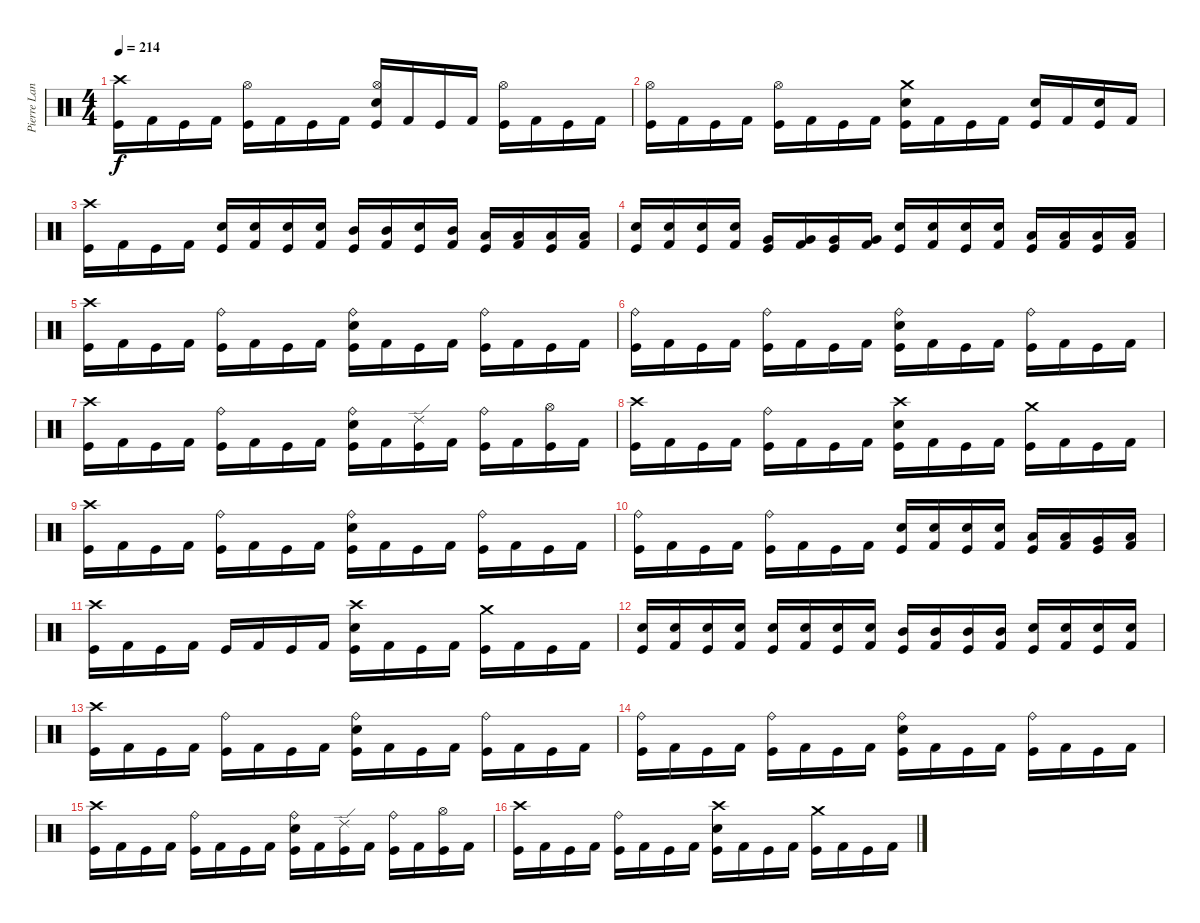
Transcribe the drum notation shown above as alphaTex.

\track ("Pierre Langlois (Drums)" "Pierre Lan") {instrument percussion}
\staff {score}
\articulation defaults
\ts (4 4)
\tempo 214
\clef neutral
\ks c
("Crash high (hit)" "Kick (hit)").16{dy f} "Kick (hit) 2".16 "Kick (hit)".16 "Kick (hit) 2".16 ("Hi-Hat (open)" "Kick (hit)").16 "Kick (hit) 2".16 "Kick (hit)".16 "Kick (hit) 2".16 ("Hi-Hat (open)" "Snare (hit) 2" "Kick (hit)").16 "Kick (hit) 2".16 "Kick (hit)".16 "Kick (hit) 2".16 ("Hi-Hat (open)" "Kick (hit)").16 "Kick (hit) 2".16 "Kick (hit)".16 "Kick (hit) 2".16 |
("Hi-Hat (open)" "Kick (hit)").16 "Kick (hit) 2".16 "Kick (hit)".16 "Kick (hit) 2".16 ("Hi-Hat (open)" "Kick (hit)").16 "Kick (hit) 2".16 "Kick (hit)".16 "Kick (hit) 2".16 ("Crash medium (hit)" "Snare (hit) 2" "Kick (hit)").16 "Kick (hit) 2".16 "Kick (hit)".16 "Kick (hit) 2".16 ("Snare (hit) 2" "Kick (hit)").16 "Kick (hit) 2".16 ("Snare (hit) 2" "Kick (hit)").16 "Kick (hit) 2".16 |
("Crash high (hit)" "Kick (hit)").16 "Kick (hit) 2".16 "Kick (hit)".16 "Kick (hit) 2".16 ("Snare (hit) 2" "Kick (hit)").16 ("Snare (hit) 2" "Kick (hit) 2").16 ("Snare (hit) 2" "Kick (hit)").16 ("Snare (hit) 2" "Kick (hit) 2").16 ("Mid Tom (hit)" "Kick (hit)").16 ("Mid Tom (hit)" "Kick (hit) 2").16 ("Snare (hit) 2" "Kick (hit)").16 ("Mid Tom (hit)" "Kick (hit) 2").16 ("Low Tom (hit)" "Kick (hit)").16 ("Low Tom (hit)" "Kick (hit) 2").16 ("Low Tom (hit)" "Kick (hit)").16 ("Low Tom (hit)" "Kick (hit) 2").16 |
("Snare (hit) 2" "Kick (hit)").16 ("Snare (hit) 2" "Kick (hit) 2").16 ("Snare (hit) 2" "Kick (hit)").16 ("Snare (hit) 2" "Kick (hit) 2").16 ("Very Low Tom (hit)" "Kick (hit)").16 ("Very Low Tom (hit)" "Kick (hit) 2").16 ("Very Low Tom (hit)" "Kick (hit)").16 ("Very Low Tom (hit)" "Kick (hit) 2").16 ("Snare (hit) 2" "Kick (hit)").16 ("Snare (hit) 2" "Kick (hit) 2").16 ("Snare (hit) 2" "Kick (hit)").16 ("Snare (hit) 2" "Kick (hit) 2").16 ("Low Floor Tom (hit)" "Kick (hit)").16 ("Low Floor Tom (hit)" "Kick (hit) 2").16 ("Low Floor Tom (hit)" "Kick (hit)").16 ("Low Floor Tom (hit)" "Kick (hit) 2").16 |
("Crash high (hit)" "Kick (hit)").16 "Kick (hit) 2".16 "Kick (hit)".16 "Kick (hit) 2".16 ("Ride (bell)" "Kick (hit)").16 "Kick (hit) 2".16 "Kick (hit)".16 "Kick (hit) 2".16 ("Ride (bell)" "Snare (hit) 2" "Kick (hit)").16 "Kick (hit) 2".16 "Kick (hit)".16 "Kick (hit) 2".16 ("Ride (bell)" "Kick (hit)").16 "Kick (hit) 2".16 "Kick (hit)".16 "Kick (hit) 2".16 |
("Ride (bell)" "Kick (hit)").16 "Kick (hit) 2".16 "Kick (hit)".16 "Kick (hit) 2".16 ("Ride (bell)" "Kick (hit)").16 "Kick (hit) 2".16 "Kick (hit)".16 "Kick (hit) 2".16 ("Ride (bell)" "Snare (hit) 2" "Kick (hit)").16 "Kick (hit) 2".16 "Kick (hit)".16 "Kick (hit) 2".16 ("Ride (bell)" "Kick (hit)").16 "Kick (hit) 2".16 "Kick (hit)".16 "Kick (hit) 2".16 |
("Crash high (hit)" "Kick (hit)").16 "Kick (hit) 2".16 "Kick (hit)".16 "Kick (hit) 2".16 ("Ride (bell)" "Kick (hit)").16 "Kick (hit) 2".16 "Kick (hit)".16 "Kick (hit) 2".16 ("Ride (bell)" "Snare (hit) 2" "Kick (hit)").16 "Kick (hit) 2".16 ("Ride (edge) 2" "Kick (hit)").16 "Kick (hit) 2".16 ("Ride (bell)" "Kick (hit)").16 "Kick (hit) 2".16 ("Hi-Hat (open)" "Kick (hit)").16 "Kick (hit) 2".16 |
("Crash high (hit)" "Kick (hit)").16 "Kick (hit) 2".16 "Kick (hit)".16 "Kick (hit) 2".16 ("Ride (bell)" "Kick (hit)").16 "Kick (hit) 2".16 "Kick (hit)".16 "Kick (hit) 2".16 ("Crash high (hit)" "Snare (hit) 2" "Kick (hit)").16 "Kick (hit) 2".16 "Kick (hit)".16 "Kick (hit) 2".16 ("Crash medium (hit)" "Kick (hit)").16 "Kick (hit) 2".16 "Kick (hit)".16 "Kick (hit) 2".16 |
("Crash high (hit)" "Kick (hit)").16 "Kick (hit) 2".16 "Kick (hit)".16 "Kick (hit) 2".16 ("Ride (bell)" "Kick (hit)").16 "Kick (hit) 2".16 "Kick (hit)".16 "Kick (hit) 2".16 ("Ride (bell)" "Snare (hit) 2" "Kick (hit)").16 "Kick (hit) 2".16 "Kick (hit)".16 "Kick (hit) 2".16 ("Ride (bell)" "Kick (hit)").16 "Kick (hit) 2".16 "Kick (hit)".16 "Kick (hit) 2".16 |
("Ride (bell)" "Kick (hit)").16 "Kick (hit) 2".16 "Kick (hit)".16 "Kick (hit) 2".16 ("Ride (bell)" "Kick (hit)").16 "Kick (hit) 2".16 "Kick (hit)".16 "Kick (hit) 2".16 ("Snare (hit) 2" "Kick (hit)").16 ("Snare (hit) 2" "Kick (hit) 2").16 ("Snare (hit) 2" "Kick (hit)").16 ("Snare (hit) 2" "Kick (hit) 2").16 ("Low Tom (hit)" "Kick (hit)").16 ("Low Tom (hit)" "Kick (hit) 2").16 ("Very Low Tom (hit)" "Kick (hit)").16 ("Low Floor Tom (hit)" "Kick (hit) 2").16 |
("Crash high (hit)" "Kick (hit)").16 "Kick (hit) 2".16 "Kick (hit)".16 "Kick (hit) 2".16 "Kick (hit)".16 "Kick (hit) 2".16 "Kick (hit)".16 "Kick (hit) 2".16 ("Crash high (hit)" "Snare (hit) 2" "Kick (hit)").16 "Kick (hit) 2".16 "Kick (hit)".16 "Kick (hit) 2".16 ("Crash medium (hit)" "Kick (hit)").16 "Kick (hit) 2".16 "Kick (hit)".16 "Kick (hit) 2".16 |
("Snare (hit) 2" "Kick (hit)").16 ("Snare (hit) 2" "Kick (hit) 2").16 ("Snare (hit) 2" "Kick (hit)").16 ("Snare (hit) 2" "Kick (hit) 2").16 ("Snare (hit) 2" "Kick (hit)").16 ("Snare (hit) 2" "Kick (hit) 2").16 ("Snare (hit) 2" "Kick (hit)").16 ("Snare (hit) 2" "Kick (hit) 2").16 ("Mid Tom (hit)" "Kick (hit)").16 ("Mid Tom (hit)" "Kick (hit) 2").16 ("Mid Tom (hit)" "Kick (hit)").16 ("Mid Tom (hit)" "Kick (hit) 2").16 ("Snare (hit) 2" "Kick (hit)").16 ("Snare (hit) 2" "Kick (hit) 2").16 ("Snare (hit) 2" "Kick (hit)").16 ("Snare (hit) 2" "Kick (hit) 2").16 |
("Crash high (hit)" "Kick (hit)").16 "Kick (hit) 2".16 "Kick (hit)".16 "Kick (hit) 2".16 ("Ride (bell)" "Kick (hit)").16 "Kick (hit) 2".16 "Kick (hit)".16 "Kick (hit) 2".16 ("Ride (bell)" "Snare (hit) 2" "Kick (hit)").16 "Kick (hit) 2".16 "Kick (hit)".16 "Kick (hit) 2".16 ("Ride (bell)" "Kick (hit)").16 "Kick (hit) 2".16 "Kick (hit)".16 "Kick (hit) 2".16 |
("Ride (bell)" "Kick (hit)").16 "Kick (hit) 2".16 "Kick (hit)".16 "Kick (hit) 2".16 ("Ride (bell)" "Kick (hit)").16 "Kick (hit) 2".16 "Kick (hit)".16 "Kick (hit) 2".16 ("Ride (bell)" "Snare (hit) 2" "Kick (hit)").16 "Kick (hit) 2".16 "Kick (hit)".16 "Kick (hit) 2".16 ("Ride (bell)" "Kick (hit)").16 "Kick (hit) 2".16 "Kick (hit)".16 "Kick (hit) 2".16 |
("Crash high (hit)" "Kick (hit)").16 "Kick (hit) 2".16 "Kick (hit)".16 "Kick (hit) 2".16 ("Ride (bell)" "Kick (hit)").16 "Kick (hit) 2".16 "Kick (hit)".16 "Kick (hit) 2".16 ("Ride (bell)" "Snare (hit) 2" "Kick (hit)").16 "Kick (hit) 2".16 ("Ride (edge) 2" "Kick (hit)").16 "Kick (hit) 2".16 ("Ride (bell)" "Kick (hit)").16 "Kick (hit) 2".16 ("Hi-Hat (open)" "Kick (hit)").16 "Kick (hit) 2".16 |
("Crash high (hit)" "Kick (hit)").16 "Kick (hit) 2".16 "Kick (hit)".16 "Kick (hit) 2".16 ("Ride (bell)" "Kick (hit)").16 "Kick (hit) 2".16 "Kick (hit)".16 "Kick (hit) 2".16 ("Crash high (hit)" "Snare (hit) 2" "Kick (hit)").16 "Kick (hit) 2".16 "Kick (hit)".16 "Kick (hit) 2".16 ("Crash medium (hit)" "Kick (hit)").16 "Kick (hit) 2".16 "Kick (hit)".16 "Kick (hit) 2".16
